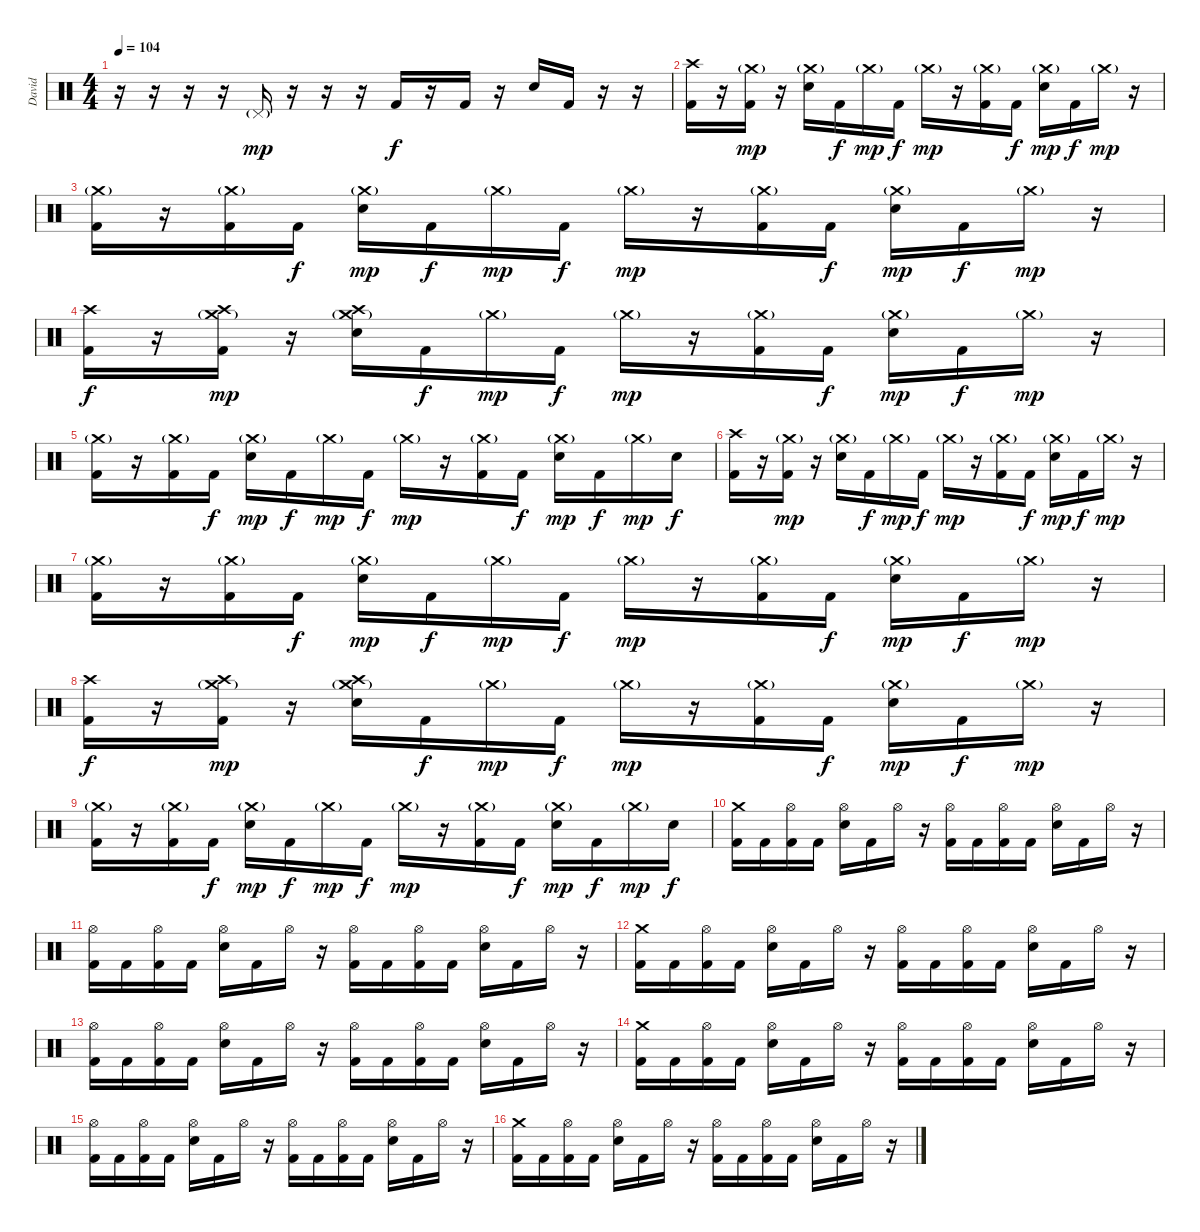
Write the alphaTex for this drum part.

\track ("David" "David") {instrument percussion}
\staff {score}
\articulation defaults
\ts (4 4)
\tempo 104
\clef neutral
\ks c
r.16{dy mp} r.16 r.16 r.16 "Pedal Hi-Hat (hit)"{g}.16 r.16 r.16 r.16 "Kick (hit) 2".16{dy f} r.16 "Kick (hit) 2".16 r.16 "Electric Snare (hit)".16 "Kick (hit) 2".16 r.16 r.16 |
("Crash high (hit)" "Kick (hit) 2").16 r.16 ("Crash medium (hit)"{g} "Kick (hit) 2").16{dy mp} r.16 ("Crash medium (hit)"{g} "Electric Snare (hit)").16 "Kick (hit) 2".16{dy f} "Crash medium (hit)"{g}.16{dy mp} "Kick (hit) 2".16{dy f} "Crash medium (hit)"{g}.16{dy mp} r.16 ("Crash medium (hit)"{g} "Kick (hit) 2").16 "Kick (hit) 2".16{dy f} ("Crash medium (hit)"{g} "Electric Snare (hit)").16{dy mp} "Kick (hit) 2".16{dy f} "Crash medium (hit)"{g}.16{dy mp} r.16 |
("Crash medium (hit)"{g} "Kick (hit) 2").16 r.16 ("Crash medium (hit)"{g} "Kick (hit) 2").16 "Kick (hit) 2".16{dy f} ("Crash medium (hit)"{g} "Electric Snare (hit)").16{dy mp} "Kick (hit) 2".16{dy f} "Crash medium (hit)"{g}.16{dy mp} "Kick (hit) 2".16{dy f} "Crash medium (hit)"{g}.16{dy mp} r.16 ("Crash medium (hit)"{g} "Kick (hit) 2").16 "Kick (hit) 2".16{dy f} ("Crash medium (hit)"{g} "Electric Snare (hit)").16{dy mp} "Kick (hit) 2".16{dy f} "Crash medium (hit)"{g}.16{dy mp} r.16 |
("Crash high (hit)" "Kick (hit) 2").16{dy f} r.16 ("Crash high (hit)" "Crash medium (hit)"{g} "Kick (hit) 2").16{dy mp} r.16 ("Crash high (hit)" "Crash medium (hit)"{g} "Electric Snare (hit)").16 "Kick (hit) 2".16{dy f} "Crash medium (hit)"{g}.16{dy mp} "Kick (hit) 2".16{dy f} "Crash medium (hit)"{g}.16{dy mp} r.16 ("Crash medium (hit)"{g} "Kick (hit) 2").16 "Kick (hit) 2".16{dy f} ("Crash medium (hit)"{g} "Electric Snare (hit)").16{dy mp} "Kick (hit) 2".16{dy f} "Crash medium (hit)"{g}.16{dy mp} r.16 |
("Crash medium (hit)"{g} "Kick (hit) 2").16 r.16 ("Crash medium (hit)"{g} "Kick (hit) 2").16 "Kick (hit) 2".16{dy f} ("Crash medium (hit)"{g} "Electric Snare (hit)").16{dy mp} "Kick (hit) 2".16{dy f} "Crash medium (hit)"{g}.16{dy mp} "Kick (hit) 2".16{dy f} "Crash medium (hit)"{g}.16{dy mp} r.16 ("Crash medium (hit)"{g} "Kick (hit) 2").16 "Kick (hit) 2".16{dy f} ("Crash medium (hit)"{g} "Electric Snare (hit)").16{dy mp} "Kick (hit) 2".16{dy f} "Crash medium (hit)"{g}.16{dy mp} "Electric Snare (hit)".16{dy f} |
("Crash high (hit)" "Kick (hit) 2").16 r.16 ("Crash medium (hit)"{g} "Kick (hit) 2").16{dy mp} r.16 ("Crash medium (hit)"{g} "Electric Snare (hit)").16 "Kick (hit) 2".16{dy f} "Crash medium (hit)"{g}.16{dy mp} "Kick (hit) 2".16{dy f} "Crash medium (hit)"{g}.16{dy mp} r.16 ("Crash medium (hit)"{g} "Kick (hit) 2").16 "Kick (hit) 2".16{dy f} ("Crash medium (hit)"{g} "Electric Snare (hit)").16{dy mp} "Kick (hit) 2".16{dy f} "Crash medium (hit)"{g}.16{dy mp} r.16 |
("Crash medium (hit)"{g} "Kick (hit) 2").16 r.16 ("Crash medium (hit)"{g} "Kick (hit) 2").16 "Kick (hit) 2".16{dy f} ("Crash medium (hit)"{g} "Electric Snare (hit)").16{dy mp} "Kick (hit) 2".16{dy f} "Crash medium (hit)"{g}.16{dy mp} "Kick (hit) 2".16{dy f} "Crash medium (hit)"{g}.16{dy mp} r.16 ("Crash medium (hit)"{g} "Kick (hit) 2").16 "Kick (hit) 2".16{dy f} ("Crash medium (hit)"{g} "Electric Snare (hit)").16{dy mp} "Kick (hit) 2".16{dy f} "Crash medium (hit)"{g}.16{dy mp} r.16 |
("Crash high (hit)" "Kick (hit) 2").16{dy f} r.16 ("Crash high (hit)" "Crash medium (hit)"{g} "Kick (hit) 2").16{dy mp} r.16 ("Crash high (hit)" "Crash medium (hit)"{g} "Electric Snare (hit)").16 "Kick (hit) 2".16{dy f} "Crash medium (hit)"{g}.16{dy mp} "Kick (hit) 2".16{dy f} "Crash medium (hit)"{g}.16{dy mp} r.16 ("Crash medium (hit)"{g} "Kick (hit) 2").16 "Kick (hit) 2".16{dy f} ("Crash medium (hit)"{g} "Electric Snare (hit)").16{dy mp} "Kick (hit) 2".16{dy f} "Crash medium (hit)"{g}.16{dy mp} r.16 |
("Crash medium (hit)"{g} "Kick (hit) 2").16 r.16 ("Crash medium (hit)"{g} "Kick (hit) 2").16 "Kick (hit) 2".16{dy f} ("Crash medium (hit)"{g} "Electric Snare (hit)").16{dy mp} "Kick (hit) 2".16{dy f} "Crash medium (hit)"{g}.16{dy mp} "Kick (hit) 2".16{dy f} "Crash medium (hit)"{g}.16{dy mp} r.16 ("Crash medium (hit)"{g} "Kick (hit) 2").16 "Kick (hit) 2".16{dy f} ("Crash medium (hit)"{g} "Electric Snare (hit)").16{dy mp} "Kick (hit) 2".16{dy f} "Crash medium (hit)"{g}.16{dy mp} "Electric Snare (hit)".16{dy f} |
("Crash medium (hit)" "Kick (hit) 2").16 "Kick (hit) 2".16 ("Hi-Hat (open)" "Kick (hit) 2").16 "Kick (hit) 2".16 ("Hi-Hat (open)" "Electric Snare (hit)").16 "Kick (hit) 2".16 "Hi-Hat (open)".16 r.16 ("Hi-Hat (open)" "Kick (hit) 2").16 "Kick (hit) 2".16 ("Hi-Hat (open)" "Kick (hit) 2").16 "Kick (hit) 2".16 ("Hi-Hat (open)" "Electric Snare (hit)").16 "Kick (hit) 2".16 "Hi-Hat (open)".16 r.16 |
("Hi-Hat (open)" "Kick (hit) 2").16 "Kick (hit) 2".16 ("Hi-Hat (open)" "Kick (hit) 2").16 "Kick (hit) 2".16 ("Hi-Hat (open)" "Electric Snare (hit)").16 "Kick (hit) 2".16 "Hi-Hat (open)".16 r.16 ("Hi-Hat (open)" "Kick (hit) 2").16 "Kick (hit) 2".16 ("Hi-Hat (open)" "Kick (hit) 2").16 "Kick (hit) 2".16 ("Hi-Hat (open)" "Electric Snare (hit)").16 "Kick (hit) 2".16 "Hi-Hat (open)".16 r.16 |
("Crash medium (hit)" "Kick (hit) 2").16 "Kick (hit) 2".16 ("Hi-Hat (open)" "Kick (hit) 2").16 "Kick (hit) 2".16 ("Hi-Hat (open)" "Electric Snare (hit)").16 "Kick (hit) 2".16 "Hi-Hat (open)".16 r.16 ("Hi-Hat (open)" "Kick (hit) 2").16 "Kick (hit) 2".16 ("Hi-Hat (open)" "Kick (hit) 2").16 "Kick (hit) 2".16 ("Hi-Hat (open)" "Electric Snare (hit)").16 "Kick (hit) 2".16 "Hi-Hat (open)".16 r.16 |
("Hi-Hat (open)" "Kick (hit) 2").16 "Kick (hit) 2".16 ("Hi-Hat (open)" "Kick (hit) 2").16 "Kick (hit) 2".16 ("Hi-Hat (open)" "Electric Snare (hit)").16 "Kick (hit) 2".16 "Hi-Hat (open)".16 r.16 ("Hi-Hat (open)" "Kick (hit) 2").16 "Kick (hit) 2".16 ("Hi-Hat (open)" "Kick (hit) 2").16 "Kick (hit) 2".16 ("Hi-Hat (open)" "Electric Snare (hit)").16 "Kick (hit) 2".16 "Hi-Hat (open)".16 r.16 |
("Crash medium (hit)" "Kick (hit) 2").16 "Kick (hit) 2".16 ("Hi-Hat (open)" "Kick (hit) 2").16 "Kick (hit) 2".16 ("Hi-Hat (open)" "Electric Snare (hit)").16 "Kick (hit) 2".16 "Hi-Hat (open)".16 r.16 ("Hi-Hat (open)" "Kick (hit) 2").16 "Kick (hit) 2".16 ("Hi-Hat (open)" "Kick (hit) 2").16 "Kick (hit) 2".16 ("Hi-Hat (open)" "Electric Snare (hit)").16 "Kick (hit) 2".16 "Hi-Hat (open)".16 r.16 |
("Hi-Hat (open)" "Kick (hit) 2").16 "Kick (hit) 2".16 ("Hi-Hat (open)" "Kick (hit) 2").16 "Kick (hit) 2".16 ("Hi-Hat (open)" "Electric Snare (hit)").16 "Kick (hit) 2".16 "Hi-Hat (open)".16 r.16 ("Hi-Hat (open)" "Kick (hit) 2").16 "Kick (hit) 2".16 ("Hi-Hat (open)" "Kick (hit) 2").16 "Kick (hit) 2".16 ("Hi-Hat (open)" "Electric Snare (hit)").16 "Kick (hit) 2".16 "Hi-Hat (open)".16 r.16 |
("Crash medium (hit)" "Kick (hit) 2").16 "Kick (hit) 2".16 ("Hi-Hat (open)" "Kick (hit) 2").16 "Kick (hit) 2".16 ("Hi-Hat (open)" "Electric Snare (hit)").16 "Kick (hit) 2".16 "Hi-Hat (open)".16 r.16 ("Hi-Hat (open)" "Kick (hit) 2").16 "Kick (hit) 2".16 ("Hi-Hat (open)" "Kick (hit) 2").16 "Kick (hit) 2".16 ("Hi-Hat (open)" "Electric Snare (hit)").16 "Kick (hit) 2".16 "Hi-Hat (open)".16 r.16
